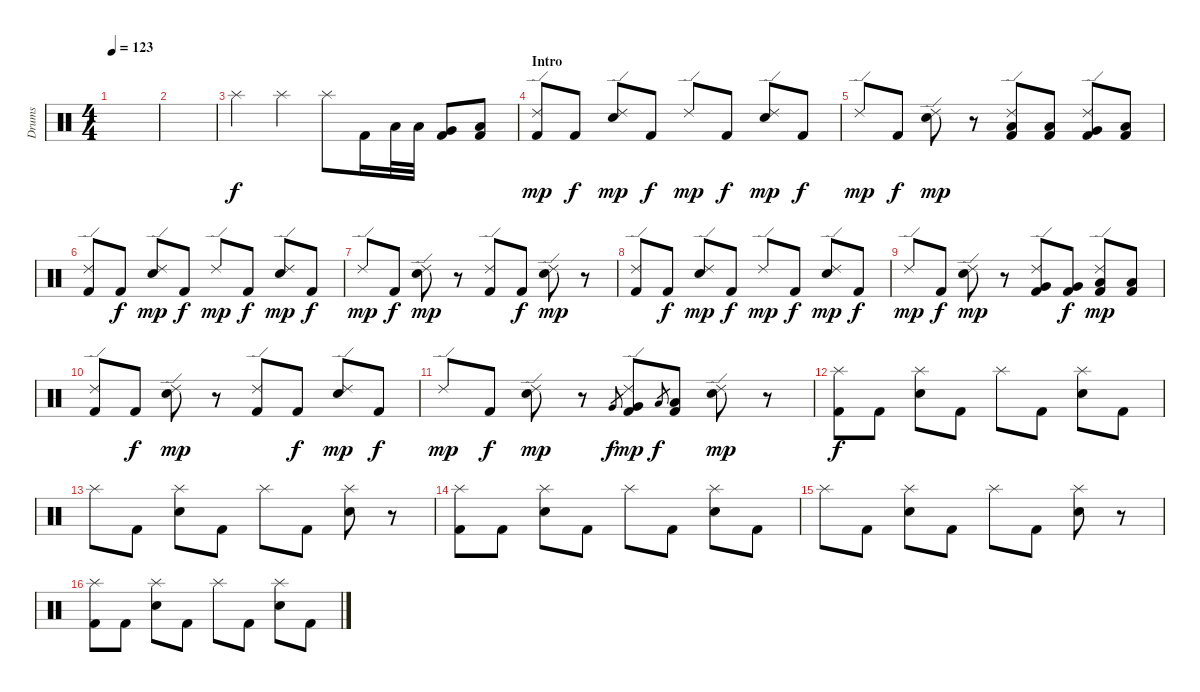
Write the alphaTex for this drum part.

\track ("Drums" "Drums") {instrument percussion}
\staff {score}
\articulation defaults
\ts (4 4)
\tempo 123
\clef neutral
\ks c
|
|
"Splash (hit)".4 "Splash (hit)".4 "Splash (hit)".8 "Kick (hit) 2".16 "Low Tom (hit)".32 "Low Tom (hit)".32 ("Very Low Tom (hit)" "Kick (hit) 2").8 ("Low Floor Tom (hit)" "Kick (hit) 2").8 |
\section ("" "Intro")
("Ride (edge) 2" "Kick (hit) 2").8{dy mp} "Kick (hit) 2".8{dy f} ("Ride (edge) 2" "Snare (hit) 2").8{dy mp} "Kick (hit) 2".8{dy f} "Ride (edge) 2".8{dy mp} "Kick (hit) 2".8{dy f} ("Ride (edge) 2" "Snare (hit) 2").8{dy mp} "Kick (hit) 2".8{dy f} |
"Ride (edge) 2".8{dy mp} "Kick (hit) 2".8{dy f} ("Ride (edge) 2" "Snare (hit) 2").8{dy mp} r.8 ("Ride (edge) 2" "Low Tom (hit)" "Kick (hit) 2").8 ("Low Tom (hit)" "Kick (hit) 2").8 ("Ride (edge) 2" "Very Low Tom (hit)" "Kick (hit) 2").8 ("Low Floor Tom (hit)" "Kick (hit) 2").8 |
("Ride (edge) 2" "Kick (hit) 2").8 "Kick (hit) 2".8{dy f} ("Ride (edge) 2" "Snare (hit) 2").8{dy mp} "Kick (hit) 2".8{dy f} "Ride (edge) 2".8{dy mp} "Kick (hit) 2".8{dy f} ("Ride (edge) 2" "Snare (hit) 2").8{dy mp} "Kick (hit) 2".8{dy f} |
"Ride (edge) 2".8{dy mp} "Kick (hit) 2".8{dy f} ("Ride (edge) 2" "Snare (hit) 2").8{dy mp} r.8 ("Ride (edge) 2" "Kick (hit) 2").8 "Kick (hit) 2".8{dy f} ("Ride (edge) 2" "Snare (hit) 2").8{dy mp} r.8 |
("Ride (edge) 2" "Kick (hit) 2").8 "Kick (hit) 2".8{dy f} ("Ride (edge) 2" "Snare (hit) 2").8{dy mp} "Kick (hit) 2".8{dy f} "Ride (edge) 2".8{dy mp} "Kick (hit) 2".8{dy f} ("Ride (edge) 2" "Snare (hit) 2").8{dy mp} "Kick (hit) 2".8{dy f} |
"Ride (edge) 2".8{dy mp} "Kick (hit) 2".8{dy f} ("Ride (edge) 2" "Snare (hit) 2").8{dy mp} r.8 ("Ride (edge) 2" "Very Low Tom (hit)" "Kick (hit) 2").8 ("Very Low Tom (hit)" "Kick (hit) 2").8{dy f} ("Ride (edge) 2" "Low Floor Tom (hit)" "Kick (hit) 2").8{dy mp} ("Low Floor Tom (hit)" "Kick (hit) 2").8 |
("Ride (edge) 2" "Kick (hit) 2").8 "Kick (hit) 2".8{dy f} ("Ride (edge) 2" "Snare (hit) 2").8{dy mp} r.8 ("Ride (edge) 2" "Kick (hit) 2").8 "Kick (hit) 2".8{dy f} ("Ride (edge) 2" "Snare (hit) 2").8{dy mp} "Kick (hit) 2".8{dy f} |
"Ride (edge) 2".8{dy mp} "Kick (hit) 2".8{dy f} ("Ride (edge) 2" "Snare (hit) 2").8{dy mp} r.8 "Very Low Tom (hit)".8{gr dy f} ("Ride (edge) 2" "Very Low Tom (hit)" "Kick (hit) 2").8{dy mp} "Low Floor Tom (hit)".8{gr dy f} ("Low Floor Tom (hit)" "Kick (hit) 2").8 ("Ride (edge) 2" "Snare (hit) 2").8{dy mp} r.8 |
("Splash (hit)" "Kick (hit) 2").8{dy f} "Kick (hit) 2".8 ("Splash (hit)" "Electric Snare (hit)").8 "Kick (hit) 2".8 "Splash (hit)".8 "Kick (hit) 2".8 ("Splash (hit)" "Electric Snare (hit)").8 "Kick (hit) 2".8 |
"Splash (hit)".8 "Kick (hit) 2".8 ("Splash (hit)" "Electric Snare (hit)").8 "Kick (hit) 2".8 "Splash (hit)".8 "Kick (hit) 2".8 ("Splash (hit)" "Electric Snare (hit)").8 r.8 |
("Splash (hit)" "Kick (hit) 2").8 "Kick (hit) 2".8 ("Splash (hit)" "Electric Snare (hit)").8 "Kick (hit) 2".8 "Splash (hit)".8 "Kick (hit) 2".8 ("Splash (hit)" "Electric Snare (hit)").8 "Kick (hit) 2".8 |
"Splash (hit)".8 "Kick (hit) 2".8 ("Splash (hit)" "Electric Snare (hit)").8 "Kick (hit) 2".8 "Splash (hit)".8 "Kick (hit) 2".8 ("Splash (hit)" "Electric Snare (hit)").8 r.8 |
("Splash (hit)" "Kick (hit) 2").8 "Kick (hit) 2".8 ("Splash (hit)" "Electric Snare (hit)").8 "Kick (hit) 2".8 "Splash (hit)".8 "Kick (hit) 2".8 ("Splash (hit)" "Electric Snare (hit)").8 "Kick (hit) 2".8
